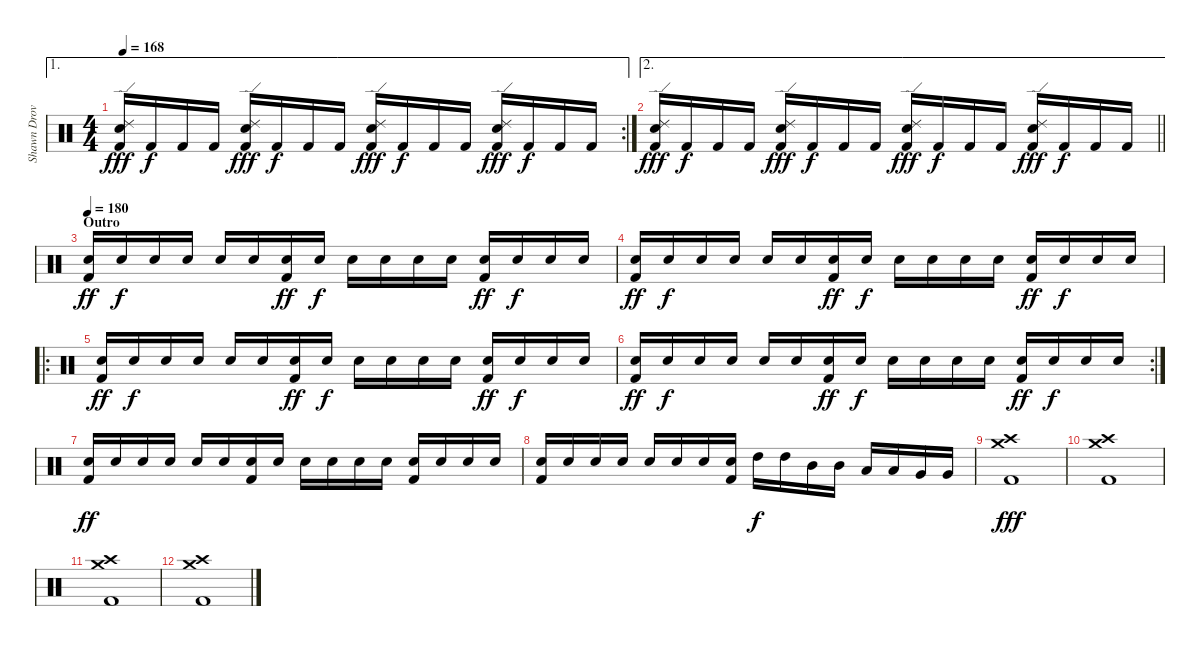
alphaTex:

\track ("Shawn Drover" "Shawn Drov") {instrument percussion}
\staff {score}
\articulation defaults
\ae 1
\rc 2
\ts (4 4)
\tempo 168
\clef neutral
\ks c
("Ride (edge) 2" "Electric Snare (hit)" "Kick (hit) 2").16{dy fff} "Kick (hit) 2".16{dy f} "Kick (hit) 2".16 "Kick (hit) 2".16 ("Ride (edge) 2" "Electric Snare (hit)" "Kick (hit) 2").16{dy fff} "Kick (hit) 2".16{dy f} "Kick (hit) 2".16 "Kick (hit) 2".16 ("Ride (edge) 2" "Electric Snare (hit)" "Kick (hit) 2").16{dy fff} "Kick (hit) 2".16{dy f} "Kick (hit) 2".16 "Kick (hit) 2".16 ("Ride (edge) 2" "Electric Snare (hit)" "Kick (hit) 2").16{dy fff} "Kick (hit) 2".16{dy f} "Kick (hit) 2".16 "Kick (hit) 2".16 |
\ae 2
\barLineRight lightlight
("Ride (edge) 2" "Electric Snare (hit)" "Kick (hit) 2").16{dy fff} "Kick (hit) 2".16{dy f} "Kick (hit) 2".16 "Kick (hit) 2".16 ("Ride (edge) 2" "Electric Snare (hit)" "Kick (hit) 2").16{dy fff} "Kick (hit) 2".16{dy f} "Kick (hit) 2".16 "Kick (hit) 2".16 ("Ride (edge) 2" "Electric Snare (hit)" "Kick (hit) 2").16{dy fff} "Kick (hit) 2".16{dy f} "Kick (hit) 2".16 "Kick (hit) 2".16 ("Ride (edge) 2" "Electric Snare (hit)" "Kick (hit) 2").16{dy fff} "Kick (hit) 2".16{dy f} "Kick (hit) 2".16 "Kick (hit) 2".16 |
\section ("" "Outro")
\tempo 180
("Electric Snare (hit)" "Kick (hit) 2").16{dy ff} "Electric Snare (hit)".16{dy f} "Electric Snare (hit)".16 "Electric Snare (hit)".16 "Electric Snare (hit)".16 "Electric Snare (hit)".16 ("Electric Snare (hit)" "Kick (hit) 2").16{dy ff} "Electric Snare (hit)".16{dy f} "Electric Snare (hit)".16 "Electric Snare (hit)".16 "Electric Snare (hit)".16 "Electric Snare (hit)".16 ("Electric Snare (hit)" "Kick (hit) 2").16{dy ff} "Electric Snare (hit)".16{dy f} "Electric Snare (hit)".16 "Electric Snare (hit)".16 |
("Electric Snare (hit)" "Kick (hit) 2").16{dy ff} "Electric Snare (hit)".16{dy f} "Electric Snare (hit)".16 "Electric Snare (hit)".16 "Electric Snare (hit)".16 "Electric Snare (hit)".16 ("Electric Snare (hit)" "Kick (hit) 2").16{dy ff} "Electric Snare (hit)".16{dy f} "Electric Snare (hit)".16 "Electric Snare (hit)".16 "Electric Snare (hit)".16 "Electric Snare (hit)".16 ("Electric Snare (hit)" "Kick (hit) 2").16{dy ff} "Electric Snare (hit)".16{dy f} "Electric Snare (hit)".16 "Electric Snare (hit)".16 |
\ro
("Electric Snare (hit)" "Kick (hit) 2").16{dy ff} "Electric Snare (hit)".16{dy f} "Electric Snare (hit)".16 "Electric Snare (hit)".16 "Electric Snare (hit)".16 "Electric Snare (hit)".16 ("Electric Snare (hit)" "Kick (hit) 2").16{dy ff} "Electric Snare (hit)".16{dy f} "Electric Snare (hit)".16 "Electric Snare (hit)".16 "Electric Snare (hit)".16 "Electric Snare (hit)".16 ("Electric Snare (hit)" "Kick (hit) 2").16{dy ff} "Electric Snare (hit)".16{dy f} "Electric Snare (hit)".16 "Electric Snare (hit)".16 |
\rc 2
("Electric Snare (hit)" "Kick (hit) 2").16{dy ff} "Electric Snare (hit)".16{dy f} "Electric Snare (hit)".16 "Electric Snare (hit)".16 "Electric Snare (hit)".16 "Electric Snare (hit)".16 ("Electric Snare (hit)" "Kick (hit) 2").16{dy ff} "Electric Snare (hit)".16{dy f} "Electric Snare (hit)".16 "Electric Snare (hit)".16 "Electric Snare (hit)".16 "Electric Snare (hit)".16 ("Electric Snare (hit)" "Kick (hit) 2").16{dy ff} "Electric Snare (hit)".16{dy f} "Electric Snare (hit)".16 "Electric Snare (hit)".16 |
("Electric Snare (hit)" "Kick (hit) 2").16{dy ff} "Electric Snare (hit)".16 "Electric Snare (hit)".16 "Electric Snare (hit)".16 "Electric Snare (hit)".16 "Electric Snare (hit)".16 ("Electric Snare (hit)" "Kick (hit) 2").16 "Electric Snare (hit)".16 "Electric Snare (hit)".16 "Electric Snare (hit)".16 "Electric Snare (hit)".16 "Electric Snare (hit)".16 ("Electric Snare (hit)" "Kick (hit) 2").16 "Electric Snare (hit)".16 "Electric Snare (hit)".16 "Electric Snare (hit)".16 |
("Electric Snare (hit)" "Kick (hit) 2").16 "Electric Snare (hit)".16 "Electric Snare (hit)".16 "Electric Snare (hit)".16 "Electric Snare (hit)".16 "Electric Snare (hit)".16 "Electric Snare (hit)".16 ("Electric Snare (hit)" "Kick (hit) 2").16 "High Tom (hit)".16{dy f} "High Tom (hit)".16 "Mid Tom (hit)".16 "Mid Tom (hit)".16 "Low Tom (hit)".16 "Low Tom (hit)".16 "Very Low Tom (hit)".16 "Very Low Tom (hit)".16 |
("Crash high (hit)" "Crash medium (hit)" "Kick (hit) 2").1{dy fff} |
("Crash high (hit)" "Crash medium (hit)" "Kick (hit) 2").1 |
("Crash high (hit)" "Crash medium (hit)" "Kick (hit) 2").1 |
("Crash high (hit)" "Crash medium (hit)" "Kick (hit) 2").1
